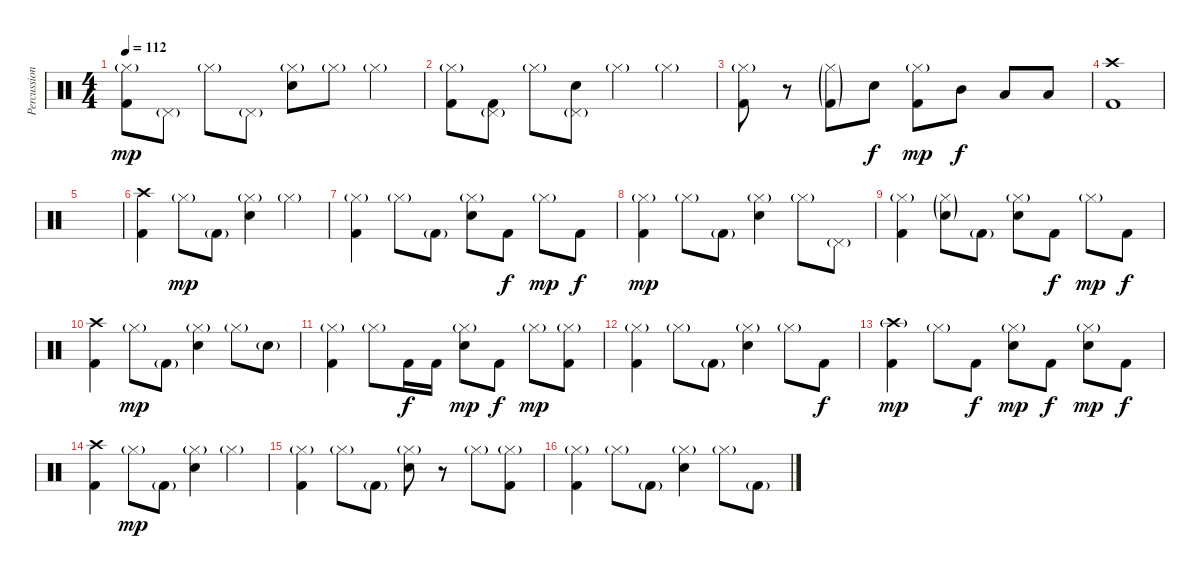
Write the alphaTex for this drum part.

\track ("Percussion" "Percussion") {instrument percussion}
\staff {score}
\articulation defaults
\ts (4 4)
\tempo 112
\clef neutral
\ks c
("Hi-Hat (closed)"{g} "Kick (hit) 2").8{dy mp} "Pedal Hi-Hat (hit)"{g}.8 "Hi-Hat (closed)"{g}.8 "Pedal Hi-Hat (hit)"{g}.8 ("Hi-Hat (closed)"{g} "Electric Snare (hit)").8 "Hi-Hat (closed)"{g}.8 "Hi-Hat (closed)"{g}.4 |
("Hi-Hat (closed)"{g} "Kick (hit) 2").8 ("Pedal Hi-Hat (hit)"{g} "Kick (hit) 2").8 "Hi-Hat (closed)"{g}.8 ("Pedal Hi-Hat (hit)"{g} "Electric Snare (hit)").8 "Hi-Hat (closed)"{g}.4 "Hi-Hat (closed)"{g}.4 |
("Hi-Hat (closed)"{g} "Kick (hit) 2").8 r.8 ("Hi-Hat (closed)"{g} "Kick (hit) 2"{g}).8 "Electric Snare (hit)".8{dy f} ("Hi-Hat (closed)"{g} "Kick (hit) 2").8{dy mp} "Mid Tom (hit)".8{dy f} "Low Tom (hit)".8 "Low Floor Tom (hit)".8 |
("Crash high (hit)" "Kick (hit) 2").1 |
|
("Crash high (hit)" "Kick (hit) 2").4 "Hi-Hat (closed)"{g}.8{dy mp} "Kick (hit) 2"{g}.8 ("Hi-Hat (closed)"{g} "Snare (hit) 2").4 "Hi-Hat (closed)"{g}.4 |
("Hi-Hat (closed)"{g} "Kick (hit) 2").4 "Hi-Hat (closed)"{g}.8 "Kick (hit) 2"{g}.8 ("Hi-Hat (closed)"{g} "Snare (hit) 2").8 "Kick (hit) 2".8{dy f} "Hi-Hat (closed)"{g}.8{dy mp} "Kick (hit) 2".8{dy f} |
("Hi-Hat (closed)"{g} "Kick (hit) 2").4{dy mp} "Hi-Hat (closed)"{g}.8 "Kick (hit) 2"{g}.8 ("Hi-Hat (closed)"{g} "Snare (hit) 2").4 "Hi-Hat (closed)"{g}.8 "Pedal Hi-Hat (hit)"{g}.8 |
("Hi-Hat (closed)"{g} "Kick (hit) 2").4 ("Hi-Hat (closed)"{g} "Electric Snare (hit)"{g}).8 "Kick (hit) 2"{g}.8 ("Hi-Hat (closed)"{g} "Snare (hit) 2").8 "Kick (hit) 2".8{dy f} "Hi-Hat (closed)"{g}.8{dy mp} "Kick (hit) 2".8{dy f} |
("Crash high (hit)" "Kick (hit) 2").4 "Hi-Hat (closed)"{g}.8{dy mp} "Kick (hit) 2"{g}.8 ("Hi-Hat (closed)"{g} "Snare (hit) 2").4 "Hi-Hat (closed)"{g}.8 "Electric Snare (hit)"{g}.8 |
("Hi-Hat (closed)"{g} "Kick (hit) 2").4 "Hi-Hat (closed)"{g}.8 "Kick (hit) 2".16{dy f} "Kick (hit) 2".16 ("Hi-Hat (closed)"{g} "Snare (hit) 2").8{dy mp} "Kick (hit) 2".8{dy f} "Hi-Hat (closed)"{g}.8{dy mp} ("Hi-Hat (closed)"{g} "Kick (hit) 2").8 |
("Hi-Hat (closed)"{g} "Kick (hit) 2").4 "Hi-Hat (closed)"{g}.8 "Kick (hit) 2"{g}.8 ("Hi-Hat (closed)"{g} "Snare (hit) 2").4 "Hi-Hat (closed)"{g}.8 "Kick (hit) 2".8{dy f} |
("Crash high (hit)"{g} "Kick (hit) 2").4{dy mp} "Hi-Hat (closed)"{g}.8 "Kick (hit) 2".8{dy f} ("Hi-Hat (closed)"{g} "Snare (hit) 2").8{dy mp} "Kick (hit) 2".8{dy f} ("Hi-Hat (closed)"{g} "Snare (hit) 2").8{dy mp} "Kick (hit) 2".8{dy f} |
("Crash high (hit)" "Kick (hit) 2").4 "Hi-Hat (closed)"{g}.8{dy mp} "Kick (hit) 2"{g}.8 ("Hi-Hat (closed)"{g} "Snare (hit) 2").4 "Hi-Hat (closed)"{g}.4 |
("Hi-Hat (closed)"{g} "Kick (hit) 2").4 "Hi-Hat (closed)"{g}.8 "Kick (hit) 2"{g}.8 ("Hi-Hat (closed)"{g} "Snare (hit) 2").8 r.8 "Hi-Hat (closed)"{g}.8 ("Hi-Hat (closed)"{g} "Kick (hit) 2").8 |
("Hi-Hat (closed)"{g} "Kick (hit) 2").4 "Hi-Hat (closed)"{g}.8 "Kick (hit) 2"{g}.8 ("Hi-Hat (closed)"{g} "Snare (hit) 2").4 "Hi-Hat (closed)"{g}.8 "Kick (hit) 2"{g}.8
